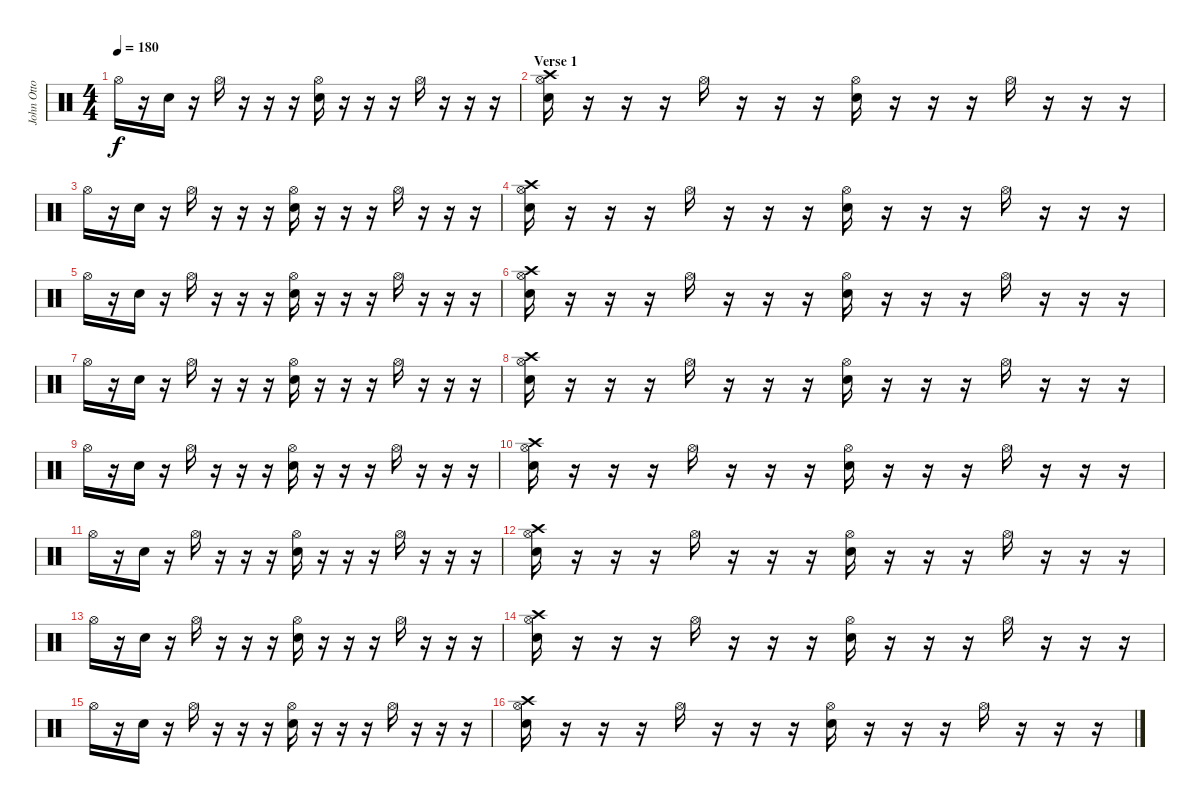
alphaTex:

\track ("John Otto" "John Otto") {instrument percussion}
\staff {score}
\articulation defaults
\ts (4 4)
\tempo 180
\clef neutral
\ks c "Hi-Hat (open)".16{dy f}
r.16 "Snare (hit) 2".16 r.16 "Hi-Hat (open)".16 r.16 r.16 r.16 ("Hi-Hat (open)" "Snare (hit) 2").16 r.16 r.16 r.16 "Hi-Hat (open)".16 r.16 r.16 r.16 |
\section ("" "Verse 1")
("Hi-Hat (open)" "Crash high (hit)" "Snare (hit) 2").16 r.16 r.16 r.16 "Hi-Hat (open)".16 r.16 r.16 r.16 ("Hi-Hat (open)" "Snare (hit) 2").16 r.16 r.16 r.16 "Hi-Hat (open)".16 r.16 r.16 r.16 |
"Hi-Hat (open)".16 r.16 "Snare (hit) 2".16 r.16 "Hi-Hat (open)".16 r.16 r.16 r.16 ("Hi-Hat (open)" "Snare (hit) 2").16 r.16 r.16 r.16 "Hi-Hat (open)".16 r.16 r.16 r.16 |
("Hi-Hat (open)" "Crash high (hit)" "Snare (hit) 2").16 r.16 r.16 r.16 "Hi-Hat (open)".16 r.16 r.16 r.16 ("Hi-Hat (open)" "Snare (hit) 2").16 r.16 r.16 r.16 "Hi-Hat (open)".16 r.16 r.16 r.16 |
"Hi-Hat (open)".16 r.16 "Snare (hit) 2".16 r.16 "Hi-Hat (open)".16 r.16 r.16 r.16 ("Hi-Hat (open)" "Snare (hit) 2").16 r.16 r.16 r.16 "Hi-Hat (open)".16 r.16 r.16 r.16 |
("Hi-Hat (open)" "Crash high (hit)" "Snare (hit) 2").16 r.16 r.16 r.16 "Hi-Hat (open)".16 r.16 r.16 r.16 ("Hi-Hat (open)" "Snare (hit) 2").16 r.16 r.16 r.16 "Hi-Hat (open)".16 r.16 r.16 r.16 |
"Hi-Hat (open)".16 r.16 "Snare (hit) 2".16 r.16 "Hi-Hat (open)".16 r.16 r.16 r.16 ("Hi-Hat (open)" "Snare (hit) 2").16 r.16 r.16 r.16 "Hi-Hat (open)".16 r.16 r.16 r.16 |
("Hi-Hat (open)" "Crash high (hit)" "Snare (hit) 2").16 r.16 r.16 r.16 "Hi-Hat (open)".16 r.16 r.16 r.16 ("Hi-Hat (open)" "Snare (hit) 2").16 r.16 r.16 r.16 "Hi-Hat (open)".16 r.16 r.16 r.16 |
"Hi-Hat (open)".16 r.16 "Snare (hit) 2".16 r.16 "Hi-Hat (open)".16 r.16 r.16 r.16 ("Hi-Hat (open)" "Snare (hit) 2").16 r.16 r.16 r.16 "Hi-Hat (open)".16 r.16 r.16 r.16 |
("Hi-Hat (open)" "Crash high (hit)" "Snare (hit) 2").16 r.16 r.16 r.16 "Hi-Hat (open)".16 r.16 r.16 r.16 ("Hi-Hat (open)" "Snare (hit) 2").16 r.16 r.16 r.16 "Hi-Hat (open)".16 r.16 r.16 r.16 |
"Hi-Hat (open)".16 r.16 "Snare (hit) 2".16 r.16 "Hi-Hat (open)".16 r.16 r.16 r.16 ("Hi-Hat (open)" "Snare (hit) 2").16 r.16 r.16 r.16 "Hi-Hat (open)".16 r.16 r.16 r.16 |
("Hi-Hat (open)" "Crash high (hit)" "Snare (hit) 2").16 r.16 r.16 r.16 "Hi-Hat (open)".16 r.16 r.16 r.16 ("Hi-Hat (open)" "Snare (hit) 2").16 r.16 r.16 r.16 "Hi-Hat (open)".16 r.16 r.16 r.16 |
"Hi-Hat (open)".16 r.16 "Snare (hit) 2".16 r.16 "Hi-Hat (open)".16 r.16 r.16 r.16 ("Hi-Hat (open)" "Snare (hit) 2").16 r.16 r.16 r.16 "Hi-Hat (open)".16 r.16 r.16 r.16 |
("Hi-Hat (open)" "Crash high (hit)" "Snare (hit) 2").16 r.16 r.16 r.16 "Hi-Hat (open)".16 r.16 r.16 r.16 ("Hi-Hat (open)" "Snare (hit) 2").16 r.16 r.16 r.16 "Hi-Hat (open)".16 r.16 r.16 r.16 |
"Hi-Hat (open)".16 r.16 "Snare (hit) 2".16 r.16 "Hi-Hat (open)".16 r.16 r.16 r.16 ("Hi-Hat (open)" "Snare (hit) 2").16 r.16 r.16 r.16 "Hi-Hat (open)".16 r.16 r.16 r.16 |
("Hi-Hat (open)" "Crash high (hit)" "Snare (hit) 2").16 r.16 r.16 r.16 "Hi-Hat (open)".16 r.16 r.16 r.16 ("Hi-Hat (open)" "Snare (hit) 2").16 r.16 r.16 r.16 "Hi-Hat (open)".16 r.16 r.16 r.16
